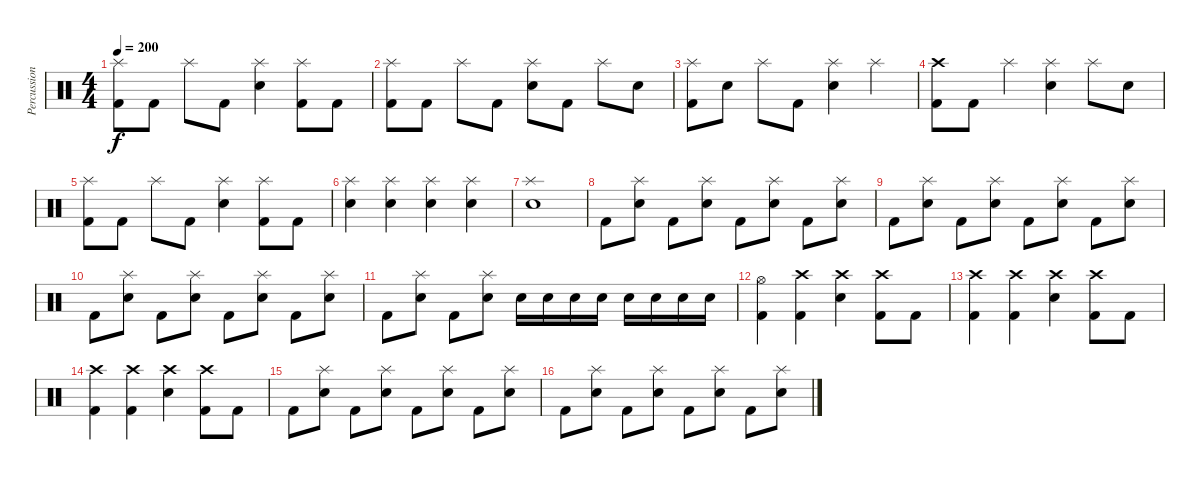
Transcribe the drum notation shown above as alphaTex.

\track ("Percussion" "Percussion") {instrument percussion}
\staff {score}
\articulation defaults
\ts (4 4)
\tempo 200
\clef neutral
\ks c
("Splash (hit)" "Kick (hit) 2").8{dy f} "Kick (hit) 2".8 "Splash (hit)".8 "Kick (hit) 2".8 ("Splash (hit)" "Electric Snare (hit)").4 ("Splash (hit)" "Kick (hit) 2").8 "Kick (hit) 2".8 |
("Splash (hit)" "Kick (hit) 2").8 "Kick (hit) 2".8 "Splash (hit)".8 "Kick (hit) 2".8 ("Splash (hit)" "Electric Snare (hit)").8 "Kick (hit) 2".8 "Splash (hit)".8 "Electric Snare (hit)".8 |
("Splash (hit)" "Kick (hit) 2").8 "Electric Snare (hit)".8 "Splash (hit)".8 "Kick (hit) 2".8 ("Splash (hit)" "Electric Snare (hit)").4 "Splash (hit)".4 |
("Crash high (hit)" "Kick (hit) 2").8 "Kick (hit) 2".8 "Splash (hit)".4 ("Splash (hit)" "Electric Snare (hit)").4 "Splash (hit)".8 "Electric Snare (hit)".8 |
("Splash (hit)" "Kick (hit) 2").8 "Kick (hit) 2".8 "Splash (hit)".8 "Kick (hit) 2".8 ("Splash (hit)" "Electric Snare (hit)").4 ("Splash (hit)" "Kick (hit) 2").8 "Kick (hit) 2".8 |
("Splash (hit)" "Electric Snare (hit)").4 ("Splash (hit)" "Electric Snare (hit)").4 ("Splash (hit)" "Electric Snare (hit)").4 ("Splash (hit)" "Electric Snare (hit)").4 |
("Splash (hit)" "Electric Snare (hit)").1 |
"Kick (hit) 2".8 ("Splash (hit)" "Electric Snare (hit)").8 "Kick (hit) 2".8 ("Splash (hit)" "Electric Snare (hit)").8 "Kick (hit) 2".8 ("Splash (hit)" "Electric Snare (hit)").8 "Kick (hit) 2".8 ("Splash (hit)" "Electric Snare (hit)").8 |
"Kick (hit) 2".8 ("Splash (hit)" "Electric Snare (hit)").8 "Kick (hit) 2".8 ("Splash (hit)" "Electric Snare (hit)").8 "Kick (hit) 2".8 ("Splash (hit)" "Electric Snare (hit)").8 "Kick (hit) 2".8 ("Splash (hit)" "Electric Snare (hit)").8 |
"Kick (hit) 2".8 ("Splash (hit)" "Electric Snare (hit)").8 "Kick (hit) 2".8 ("Splash (hit)" "Electric Snare (hit)").8 "Kick (hit) 2".8 ("Splash (hit)" "Electric Snare (hit)").8 "Kick (hit) 2".8 ("Splash (hit)" "Electric Snare (hit)").8 |
"Kick (hit) 2".8 ("Splash (hit)" "Electric Snare (hit)").8 "Kick (hit) 2".8 ("Splash (hit)" "Electric Snare (hit)").8 "Electric Snare (hit)".16 "Electric Snare (hit)".16 "Electric Snare (hit)".16 "Electric Snare (hit)".16 "Electric Snare (hit)".16 "Electric Snare (hit)".16 "Electric Snare (hit)".16 "Electric Snare (hit)".16 |
("Hi-Hat (open)" "Kick (hit) 2").4 ("Crash high (hit)" "Kick (hit) 2").4 ("Crash high (hit)" "Electric Snare (hit)").4 ("Crash high (hit)" "Kick (hit) 2").8 "Kick (hit) 2".8 |
("Crash high (hit)" "Kick (hit) 2").4 ("Crash high (hit)" "Kick (hit) 2").4 ("Crash high (hit)" "Electric Snare (hit)").4 ("Crash high (hit)" "Kick (hit) 2").8 "Kick (hit) 2".8 |
("Crash high (hit)" "Kick (hit) 2").4 ("Crash high (hit)" "Kick (hit) 2").4 ("Crash high (hit)" "Electric Snare (hit)").4 ("Crash high (hit)" "Kick (hit) 2").8 "Kick (hit) 2".8 |
"Kick (hit) 2".8 ("Splash (hit)" "Electric Snare (hit)").8 "Kick (hit) 2".8 ("Splash (hit)" "Electric Snare (hit)").8 "Kick (hit) 2".8 ("Splash (hit)" "Electric Snare (hit)").8 "Kick (hit) 2".8 ("Splash (hit)" "Electric Snare (hit)").8 |
"Kick (hit) 2".8 ("Splash (hit)" "Electric Snare (hit)").8 "Kick (hit) 2".8 ("Splash (hit)" "Electric Snare (hit)").8 "Kick (hit) 2".8 ("Splash (hit)" "Electric Snare (hit)").8 "Kick (hit) 2".8 ("Splash (hit)" "Electric Snare (hit)").8
